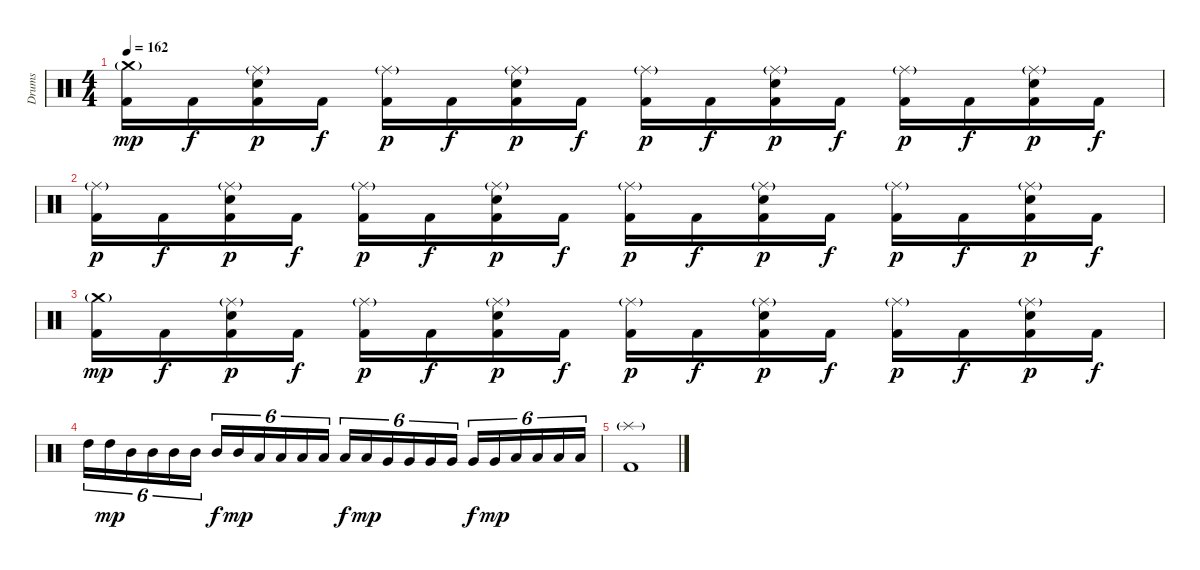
\track ("Drums" "Drums") {instrument percussion}
\staff {score}
\articulation defaults
\ts (4 4)
\tempo 162
\clef neutral
\ks c
("Crash medium (hit)"{g} "Kick (hit) 2").16{dy mp} "Kick (hit) 2".16{dy f} ("Ride (middle)"{g} "Snare (hit) 2" "Kick (hit) 2").16{dy p} "Kick (hit) 2".16{dy f} ("Ride (middle)"{g} "Kick (hit) 2").16{dy p} "Kick (hit) 2".16{dy f} ("Ride (middle)"{g} "Snare (hit) 2" "Kick (hit) 2").16{dy p} "Kick (hit) 2".16{dy f} ("Ride (middle)"{g} "Kick (hit) 2").16{dy p} "Kick (hit) 2".16{dy f} ("Ride (middle)"{g} "Snare (hit) 2" "Kick (hit) 2").16{dy p} "Kick (hit) 2".16{dy f} ("Ride (middle)"{g} "Kick (hit) 2").16{dy p} "Kick (hit) 2".16{dy f} ("Ride (middle)"{g} "Snare (hit) 2" "Kick (hit) 2").16{dy p} "Kick (hit) 2".16{dy f} |
("Ride (middle)"{g} "Kick (hit) 2").16{dy p} "Kick (hit) 2".16{dy f} ("Ride (middle)"{g} "Snare (hit) 2" "Kick (hit) 2").16{dy p} "Kick (hit) 2".16{dy f} ("Ride (middle)"{g} "Kick (hit) 2").16{dy p} "Kick (hit) 2".16{dy f} ("Ride (middle)"{g} "Snare (hit) 2" "Kick (hit) 2").16{dy p} "Kick (hit) 2".16{dy f} ("Ride (middle)"{g} "Kick (hit) 2").16{dy p} "Kick (hit) 2".16{dy f} ("Ride (middle)"{g} "Snare (hit) 2" "Kick (hit) 2").16{dy p} "Kick (hit) 2".16{dy f} ("Ride (middle)"{g} "Kick (hit) 2").16{dy p} "Kick (hit) 2".16{dy f} ("Ride (middle)"{g} "Snare (hit) 2" "Kick (hit) 2").16{dy p} "Kick (hit) 2".16{dy f} |
("Crash medium (hit)"{g} "Kick (hit) 2").16{dy mp} "Kick (hit) 2".16{dy f} ("Ride (middle)"{g} "Snare (hit) 2" "Kick (hit) 2").16{dy p} "Kick (hit) 2".16{dy f} ("Ride (middle)"{g} "Kick (hit) 2").16{dy p} "Kick (hit) 2".16{dy f} ("Ride (middle)"{g} "Snare (hit) 2" "Kick (hit) 2").16{dy p} "Kick (hit) 2".16{dy f} ("Ride (middle)"{g} "Kick (hit) 2").16{dy p} "Kick (hit) 2".16{dy f} ("Ride (middle)"{g} "Snare (hit) 2" "Kick (hit) 2").16{dy p} "Kick (hit) 2".16{dy f} ("Ride (middle)"{g} "Kick (hit) 2").16{dy p} "Kick (hit) 2".16{dy f} ("Ride (middle)"{g} "Snare (hit) 2" "Kick (hit) 2").16{dy p} "Kick (hit) 2".16{dy f} |
"High Tom (hit)".16{tu (6 4)} "High Tom (hit)".16{tu (6 4) dy mp} "Mid Tom (hit)".16{tu (6 4)} "Mid Tom (hit)".16{tu (6 4)} "Mid Tom (hit)".16{tu (6 4)} "Mid Tom (hit)".16{tu (6 4)} "Mid Tom (hit)".16{tu (6 4) dy f} "Mid Tom (hit)".16{tu (6 4) dy mp} "Low Tom (hit)".16{tu (6 4)} "Low Tom (hit)".16{tu (6 4)} "Low Tom (hit)".16{tu (6 4)} "Low Tom (hit)".16{tu (6 4)} "Low Tom (hit)".16{tu (6 4) dy f} "Low Tom (hit)".16{tu (6 4) dy mp} "Very Low Tom (hit)".16{tu (6 4)} "Very Low Tom (hit)".16{tu (6 4)} "Very Low Tom (hit)".16{tu (6 4)} "Very Low Tom (hit)".16{tu (6 4)} "Very Low Tom (hit)".16{tu (6 4) dy f} "Very Low Tom (hit)".16{tu (6 4) dy mp} "Low Floor Tom (hit)".16{tu (6 4)} "Low Floor Tom (hit)".16{tu (6 4)} "Low Floor Tom (hit)".16{tu (6 4)} "Low Floor Tom (hit)".16{tu (6 4)} |
("Splash (hit)"{g} "Kick (hit) 2").1
